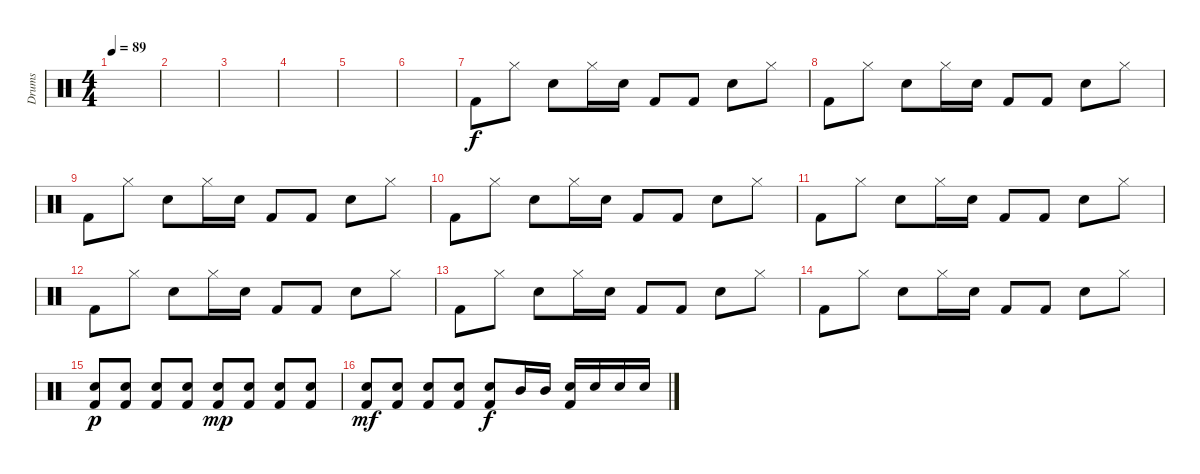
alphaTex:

\track ("Drums" "Drums") {instrument percussion}
\staff {score}
\articulation defaults
\ts (4 4)
\tempo 89
\clef neutral
\ks c
|
|
|
|
|
|
"Kick (hit) 2".8 "Hi-Hat (closed)".8 "Electric Snare (hit)".8 "Hi-Hat (closed)".16 "Electric Snare (hit)".16 "Kick (hit) 2".8 "Kick (hit) 2".8 "Electric Snare (hit)".8 "Hi-Hat (closed)".8 |
"Kick (hit) 2".8 "Hi-Hat (closed)".8 "Electric Snare (hit)".8 "Hi-Hat (closed)".16 "Electric Snare (hit)".16 "Kick (hit) 2".8 "Kick (hit) 2".8 "Electric Snare (hit)".8 "Hi-Hat (closed)".8 |
"Kick (hit) 2".8 "Hi-Hat (closed)".8 "Electric Snare (hit)".8 "Hi-Hat (closed)".16 "Electric Snare (hit)".16 "Kick (hit) 2".8 "Kick (hit) 2".8 "Electric Snare (hit)".8 "Hi-Hat (closed)".8 |
"Kick (hit) 2".8 "Hi-Hat (closed)".8 "Electric Snare (hit)".8 "Hi-Hat (closed)".16 "Electric Snare (hit)".16 "Kick (hit) 2".8 "Kick (hit) 2".8 "Electric Snare (hit)".8 "Hi-Hat (closed)".8 |
"Kick (hit) 2".8 "Hi-Hat (closed)".8 "Electric Snare (hit)".8 "Hi-Hat (closed)".16 "Electric Snare (hit)".16 "Kick (hit) 2".8 "Kick (hit) 2".8 "Electric Snare (hit)".8 "Hi-Hat (closed)".8 |
"Kick (hit) 2".8 "Hi-Hat (closed)".8 "Electric Snare (hit)".8 "Hi-Hat (closed)".16 "Electric Snare (hit)".16 "Kick (hit) 2".8 "Kick (hit) 2".8 "Electric Snare (hit)".8 "Hi-Hat (closed)".8 |
"Kick (hit) 2".8 "Hi-Hat (closed)".8 "Electric Snare (hit)".8 "Hi-Hat (closed)".16 "Electric Snare (hit)".16 "Kick (hit) 2".8 "Kick (hit) 2".8 "Electric Snare (hit)".8 "Hi-Hat (closed)".8 |
"Kick (hit) 2".8 "Hi-Hat (closed)".8 "Electric Snare (hit)".8 "Hi-Hat (closed)".16 "Electric Snare (hit)".16 "Kick (hit) 2".8 "Kick (hit) 2".8 "Electric Snare (hit)".8 "Hi-Hat (closed)".8 |
("Electric Snare (hit)" "Kick (hit) 2").8{dy p} ("Electric Snare (hit)" "Kick (hit) 2").8 ("Electric Snare (hit)" "Kick (hit) 2").8 ("Electric Snare (hit)" "Kick (hit) 2").8 ("Electric Snare (hit)" "Kick (hit) 2").8{dy mp} ("Electric Snare (hit)" "Kick (hit) 2").8 ("Electric Snare (hit)" "Kick (hit) 2").8 ("Electric Snare (hit)" "Kick (hit) 2").8 |
("Electric Snare (hit)" "Kick (hit) 2").8{dy mf} ("Electric Snare (hit)" "Kick (hit) 2").8 ("Electric Snare (hit)" "Kick (hit) 2").8 ("Electric Snare (hit)" "Kick (hit) 2").8 ("Electric Snare (hit)" "Kick (hit) 2").8{dy f} "Mid Tom (hit)".16 "Mid Tom (hit)".16 ("Electric Snare (hit)" "Kick (hit) 2").16 "Electric Snare (hit)".16 "Electric Snare (hit)".16 "Electric Snare (hit)".16
